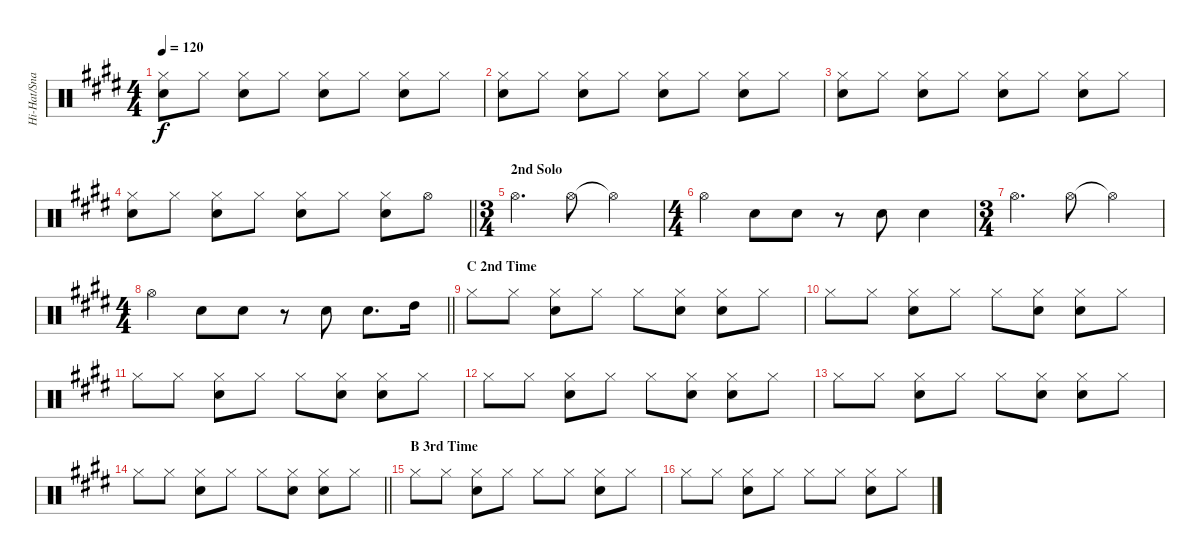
\track ("Hi-Hat/Snare" "Hi-Hat/Sna") {instrument percussion}
\staff {score}
\articulation defaults
\ts (4 4)
\tempo 120
\clef neutral
\ks e
("Hi-Hat (closed)" "Snare (hit) 2").8{dy f} "Hi-Hat (closed)".8 ("Hi-Hat (closed)" "Snare (hit) 2").8 "Hi-Hat (closed)".8 ("Hi-Hat (closed)" "Snare (hit) 2").8 "Hi-Hat (closed)".8 ("Hi-Hat (closed)" "Snare (hit) 2").8 "Hi-Hat (closed)".8 |
("Hi-Hat (closed)" "Snare (hit) 2").8 "Hi-Hat (closed)".8 ("Hi-Hat (closed)" "Snare (hit) 2").8 "Hi-Hat (closed)".8 ("Hi-Hat (closed)" "Snare (hit) 2").8 "Hi-Hat (closed)".8 ("Hi-Hat (closed)" "Snare (hit) 2").8 "Hi-Hat (closed)".8 |
("Hi-Hat (closed)" "Snare (hit) 2").8 "Hi-Hat (closed)".8 ("Hi-Hat (closed)" "Snare (hit) 2").8 "Hi-Hat (closed)".8 ("Hi-Hat (closed)" "Snare (hit) 2").8 "Hi-Hat (closed)".8 ("Hi-Hat (closed)" "Snare (hit) 2").8 "Hi-Hat (closed)".8 |
\barLineRight lightlight
("Hi-Hat (closed)" "Snare (hit) 2").8 "Hi-Hat (closed)".8 ("Hi-Hat (closed)" "Snare (hit) 2").8 "Hi-Hat (closed)".8 ("Hi-Hat (closed)" "Snare (hit) 2").8 "Hi-Hat (closed)".8 ("Hi-Hat (closed)" "Snare (hit) 2").8 "Hi-Hat (open)".8 |
\ts (3 4)
\section ("" "2nd Solo")
"Hi-Hat (open)".4{d} "Hi-Hat (open)".8 "Hi-Hat (open)"{t}.4 |
\ts (4 4)
"Hi-Hat (open)".4 "Snare (hit) 2".8 "Snare (hit) 2".8 r.8 "Snare (hit) 2".8 "Snare (hit) 2".4 |
\ts (3 4)
"Hi-Hat (open)".4{d} "Hi-Hat (open)".8 "Hi-Hat (open)"{t}.4 |
\ts (4 4)
\barLineRight lightlight "Hi-Hat (open)".4 "Snare (hit) 2".8 "Snare (hit) 2".8
r.8 "Snare (hit) 2".8 "Snare (hit) 2".8{d} "High Tom (hit)".16 |
\section ("" "C 2nd Time")
"Hi-Hat (closed)".8 "Hi-Hat (closed)".8 ("Hi-Hat (closed)" "Snare (hit) 2").8 "Hi-Hat (closed)".8 "Hi-Hat (closed)".8 ("Hi-Hat (closed)" "Snare (hit) 2").8 ("Hi-Hat (closed)" "Snare (hit) 2").8 "Hi-Hat (closed)".8 |
"Hi-Hat (closed)".8 "Hi-Hat (closed)".8 ("Hi-Hat (closed)" "Snare (hit) 2").8 "Hi-Hat (closed)".8 "Hi-Hat (closed)".8 ("Hi-Hat (closed)" "Snare (hit) 2").8 ("Hi-Hat (closed)" "Snare (hit) 2").8 "Hi-Hat (closed)".8 |
"Hi-Hat (closed)".8 "Hi-Hat (closed)".8 ("Hi-Hat (closed)" "Snare (hit) 2").8 "Hi-Hat (closed)".8 "Hi-Hat (closed)".8 ("Hi-Hat (closed)" "Snare (hit) 2").8 ("Hi-Hat (closed)" "Snare (hit) 2").8 "Hi-Hat (closed)".8 |
"Hi-Hat (closed)".8 "Hi-Hat (closed)".8 ("Hi-Hat (closed)" "Snare (hit) 2").8 "Hi-Hat (closed)".8 "Hi-Hat (closed)".8 ("Hi-Hat (closed)" "Snare (hit) 2").8 ("Hi-Hat (closed)" "Snare (hit) 2").8 "Hi-Hat (closed)".8 |
"Hi-Hat (closed)".8 "Hi-Hat (closed)".8 ("Hi-Hat (closed)" "Snare (hit) 2").8 "Hi-Hat (closed)".8 "Hi-Hat (closed)".8 ("Hi-Hat (closed)" "Snare (hit) 2").8 ("Hi-Hat (closed)" "Snare (hit) 2").8 "Hi-Hat (closed)".8 |
\barLineRight lightlight "Hi-Hat (closed)".8 "Hi-Hat (closed)".8
("Hi-Hat (closed)" "Snare (hit) 2").8 "Hi-Hat (closed)".8 "Hi-Hat (closed)".8 ("Hi-Hat (closed)" "Snare (hit) 2").8 ("Hi-Hat (closed)" "Snare (hit) 2").8 "Hi-Hat (closed)".8 |
\section ("" "B 3rd Time")
"Hi-Hat (closed)".8 "Hi-Hat (closed)".8 ("Hi-Hat (closed)" "Snare (hit) 2").8 "Hi-Hat (closed)".8 "Hi-Hat (closed)".8 "Hi-Hat (closed)".8 ("Hi-Hat (closed)" "Snare (hit) 2").8 "Hi-Hat (closed)".8 |
"Hi-Hat (closed)".8 "Hi-Hat (closed)".8 ("Hi-Hat (closed)" "Snare (hit) 2").8 "Hi-Hat (closed)".8 "Hi-Hat (closed)".8 "Hi-Hat (closed)".8 ("Hi-Hat (closed)" "Snare (hit) 2").8 "Hi-Hat (closed)".8
